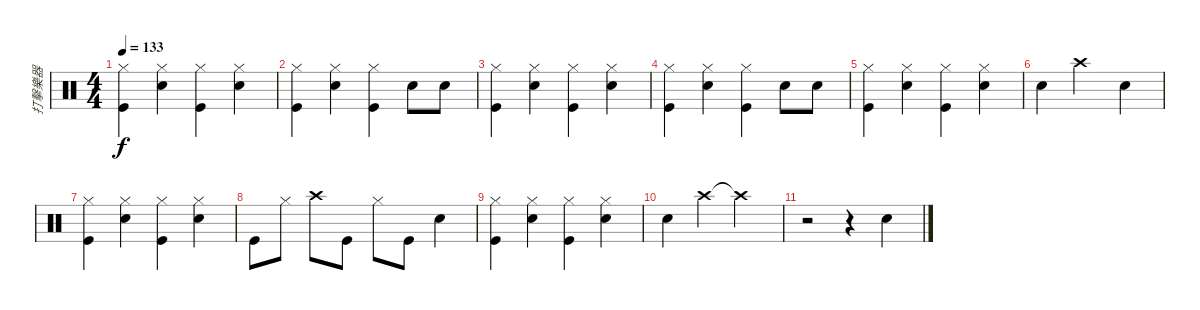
\track ("打擊樂器" "打擊樂器") {instrument percussion}
\staff {score}
\articulation defaults
\ts (4 4)
\tempo 133
\clef neutral
\ks c
("Hi-Hat (closed)" "Kick (hit)").4{dy f} ("Hi-Hat (closed)" "Snare (hit) 2").4 ("Kick (hit)" "Hi-Hat (closed)").4 ("Snare (hit) 2" "Hi-Hat (closed)").4 |
("Hi-Hat (closed)" "Kick (hit)").4 ("Hi-Hat (closed)" "Snare (hit) 2").4 ("Hi-Hat (closed)" "Kick (hit)").4 "Snare (hit) 2".8 "Snare (hit) 2".8 |
("Hi-Hat (closed)" "Kick (hit)").4 ("Hi-Hat (closed)" "Snare (hit) 2").4 ("Kick (hit)" "Hi-Hat (closed)").4 ("Snare (hit) 2" "Hi-Hat (closed)").4 |
("Hi-Hat (closed)" "Kick (hit)").4 ("Hi-Hat (closed)" "Snare (hit) 2").4 ("Hi-Hat (closed)" "Kick (hit)").4 "Snare (hit) 2".8 "Snare (hit) 2".8 |
("Hi-Hat (closed)" "Kick (hit)").4 ("Hi-Hat (closed)" "Snare (hit) 2").4 ("Kick (hit)" "Hi-Hat (closed)").4 ("Snare (hit) 2" "Hi-Hat (closed)").4 |
"Snare (hit) 2".4 "Crash high (hit)".2 "Snare (hit) 2".4 |
("Hi-Hat (closed)" "Kick (hit)").4 ("Hi-Hat (closed)" "Snare (hit) 2").4 ("Kick (hit)" "Hi-Hat (closed)").4 ("Snare (hit) 2" "Hi-Hat (closed)").4 |
"Kick (hit)".8 "Hi-Hat (closed)".8 "Crash high (hit)".8 "Kick (hit)".8 "Hi-Hat (closed)".8 "Kick (hit)".8 "Snare (hit) 2".4 |
("Hi-Hat (closed)" "Kick (hit)").4 ("Hi-Hat (closed)" "Snare (hit) 2").4 ("Kick (hit)" "Hi-Hat (closed)").4 ("Snare (hit) 2" "Hi-Hat (closed)").4 |
"Snare (hit) 2".4 "Crash high (hit)".4 "Crash high (hit)"{t}.2 |
r.2 r.4 "Snare (hit) 2".4
